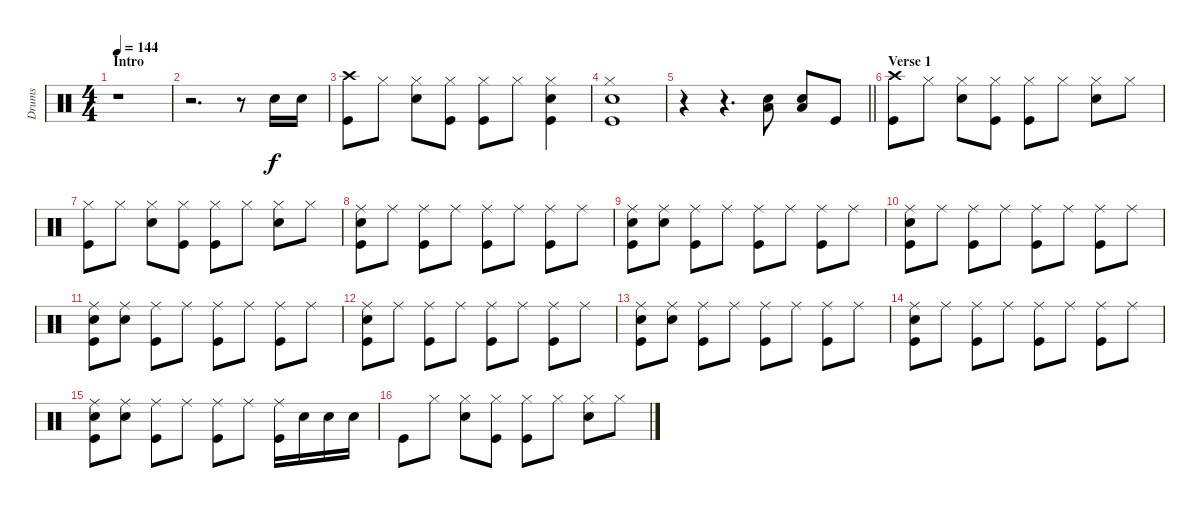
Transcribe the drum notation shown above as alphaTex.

\track ("Drums" "Drums") {instrument percussion}
\staff {score}
\articulation defaults
\ts (4 4)
\section ("" "Intro")
\tempo 144
\clef neutral
\ks c
r.1{dy f} |
r.2{d} r.8 "Snare (hit) 2".16 "Snare (hit) 2".16 |
("Crash high (hit)" "Kick (hit)").8 "Hi-Hat (closed)".8 ("Hi-Hat (closed)" "Snare (hit) 2").8 ("Hi-Hat (closed)" "Kick (hit)").8 ("Hi-Hat (closed)" "Kick (hit)").8 "Hi-Hat (closed)".8 ("Hi-Hat (closed)" "Snare (hit) 2" "Kick (hit)").4 |
("Hi-Hat (closed)" "Snare (hit) 2" "Kick (hit)").1 |
\barLineRight lightlight
r.4 r.4{d} ("Snare (hit) 2" "Low Floor Tom (hit)").8 ("Snare (hit) 2" "Low Floor Tom (hit)").8 "Kick (hit)".8 |
\section ("" "Verse 1")
("Crash high (hit)" "Kick (hit)").8 "Hi-Hat (closed)".8 ("Hi-Hat (closed)" "Snare (hit) 2").8 ("Hi-Hat (closed)" "Kick (hit)").8 ("Hi-Hat (closed)" "Kick (hit)").8 "Hi-Hat (closed)".8 ("Hi-Hat (closed)" "Snare (hit) 2").8 "Hi-Hat (closed)".8 |
("Hi-Hat (closed)" "Kick (hit)").8 "Hi-Hat (closed)".8 ("Hi-Hat (closed)" "Snare (hit) 2").8 ("Hi-Hat (closed)" "Kick (hit)").8 ("Hi-Hat (closed)" "Kick (hit)").8 "Hi-Hat (closed)".8 ("Hi-Hat (closed)" "Snare (hit) 2").8 "Hi-Hat (closed)".8 |
("Ride (middle)" "Snare (hit) 2" "Kick (hit)").8 "Ride (middle)".8 ("Ride (middle)" "Kick (hit)").8 "Ride (middle)".8 ("Ride (middle)" "Kick (hit)").8 "Ride (middle)".8 ("Ride (middle)" "Kick (hit)").8 "Ride (middle)".8 |
("Ride (middle)" "Snare (hit) 2" "Kick (hit)").8 ("Ride (middle)" "Snare (hit) 2").8 ("Ride (middle)" "Kick (hit)").8 "Ride (middle)".8 ("Ride (middle)" "Kick (hit)").8 "Ride (middle)".8 ("Ride (middle)" "Kick (hit)").8 "Ride (middle)".8 |
("Ride (middle)" "Snare (hit) 2" "Kick (hit)").8 "Ride (middle)".8 ("Ride (middle)" "Kick (hit)").8 "Ride (middle)".8 ("Ride (middle)" "Kick (hit)").8 "Ride (middle)".8 ("Ride (middle)" "Kick (hit)").8 "Ride (middle)".8 |
("Ride (middle)" "Snare (hit) 2" "Kick (hit)").8 ("Ride (middle)" "Snare (hit) 2").8 ("Ride (middle)" "Kick (hit)").8 "Ride (middle)".8 ("Ride (middle)" "Kick (hit)").8 "Ride (middle)".8 ("Ride (middle)" "Kick (hit)").8 "Ride (middle)".8 |
("Ride (middle)" "Snare (hit) 2" "Kick (hit)").8 "Ride (middle)".8 ("Ride (middle)" "Kick (hit)").8 "Ride (middle)".8 ("Ride (middle)" "Kick (hit)").8 "Ride (middle)".8 ("Ride (middle)" "Kick (hit)").8 "Ride (middle)".8 |
("Ride (middle)" "Snare (hit) 2" "Kick (hit)").8 ("Ride (middle)" "Snare (hit) 2").8 ("Ride (middle)" "Kick (hit)").8 "Ride (middle)".8 ("Ride (middle)" "Kick (hit)").8 "Ride (middle)".8 ("Ride (middle)" "Kick (hit)").8 "Ride (middle)".8 |
("Ride (middle)" "Snare (hit) 2" "Kick (hit)").8 "Ride (middle)".8 ("Ride (middle)" "Kick (hit)").8 "Ride (middle)".8 ("Ride (middle)" "Kick (hit)").8 "Ride (middle)".8 ("Ride (middle)" "Kick (hit)").8 "Ride (middle)".8 |
("Ride (middle)" "Snare (hit) 2" "Kick (hit)").8 ("Ride (middle)" "Snare (hit) 2").8 ("Ride (middle)" "Kick (hit)").8 "Ride (middle)".8 ("Ride (middle)" "Kick (hit)").8 "Ride (middle)".8 ("Ride (middle)" "Kick (hit)").16 "Snare (hit) 2".16 "Snare (hit) 2".16 "Snare (hit) 2".16 |
"Kick (hit)".8 "Hi-Hat (closed)".8 ("Hi-Hat (closed)" "Snare (hit) 2").8 ("Hi-Hat (closed)" "Kick (hit)").8 ("Hi-Hat (closed)" "Kick (hit)").8 "Hi-Hat (closed)".8 ("Hi-Hat (closed)" "Snare (hit) 2").8 "Hi-Hat (closed)".8
